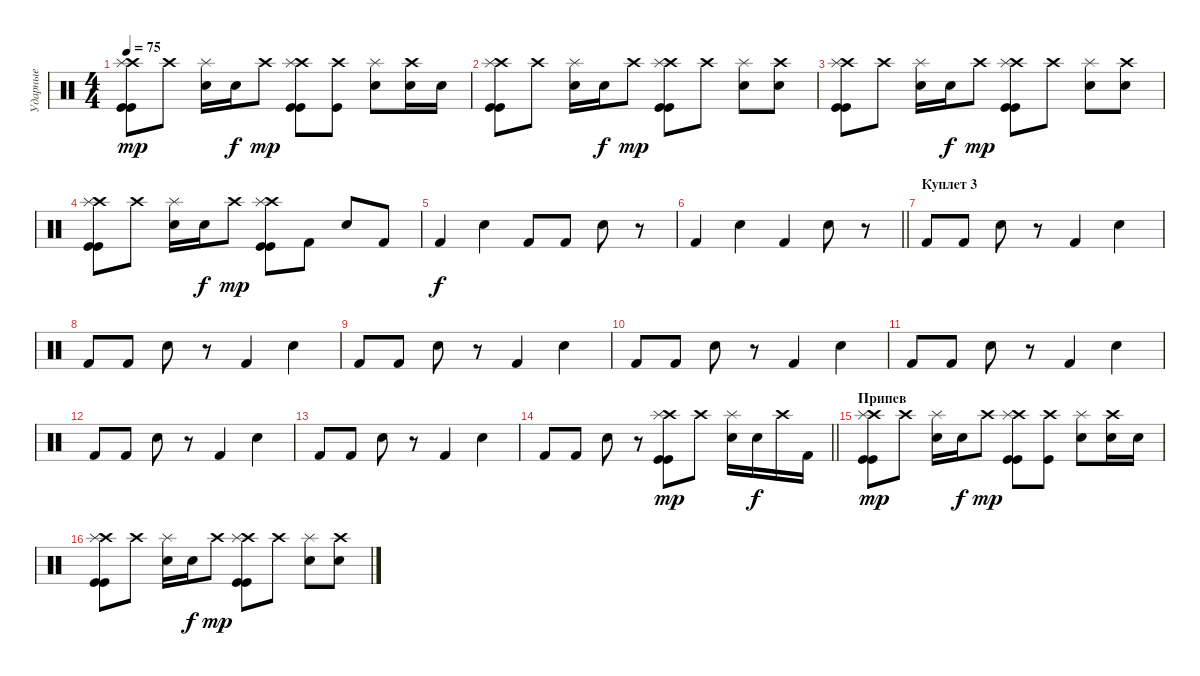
\track ("Ударные" "Ударные") {instrument percussion}
\staff {score}
\articulation defaults
\ts (4 4)
\tempo 75
\clef neutral
\ks c
("Crash high (hit)" "Splash (hit)" "Kick (hit)" "Kick (hit)").8{dy mp} "Crash high (hit)".8 ("Splash (hit)" "Electric Snare (hit)").16 "Snare (hit) 2".16{dy f} "Crash high (hit)".8{dy mp} ("Crash high (hit)" "Splash (hit)" "Kick (hit)" "Kick (hit)").8 ("Crash high (hit)" "Kick (hit)").8 ("Splash (hit)" "Electric Snare (hit)").8 ("Crash high (hit)" "Snare (hit) 2").16 "Electric Snare (hit)".16 |
("Crash high (hit)" "Splash (hit)" "Kick (hit)" "Kick (hit)").8 "Crash high (hit)".8 ("Splash (hit)" "Electric Snare (hit)").16 "Snare (hit) 2".16{dy f} "Crash high (hit)".8{dy mp} ("Crash high (hit)" "Splash (hit)" "Kick (hit)" "Kick (hit)").8 "Crash high (hit)".8 ("Splash (hit)" "Electric Snare (hit)").8 ("Crash high (hit)" "Snare (hit) 2").8 |
("Crash high (hit)" "Splash (hit)" "Kick (hit)" "Kick (hit)").8 "Crash high (hit)".8 ("Splash (hit)" "Electric Snare (hit)").16 "Snare (hit) 2".16{dy f} "Crash high (hit)".8{dy mp} ("Crash high (hit)" "Splash (hit)" "Kick (hit)" "Kick (hit)").8 "Crash high (hit)".8 ("Splash (hit)" "Electric Snare (hit)").8 ("Crash high (hit)" "Snare (hit) 2").8 |
("Crash high (hit)" "Splash (hit)" "Kick (hit)" "Kick (hit)").8 "Crash high (hit)".8 ("Splash (hit)" "Electric Snare (hit)").16 "Snare (hit) 2".16{dy f} "Crash high (hit)".8{dy mp} ("Crash high (hit)" "Splash (hit)" "Kick (hit)" "Kick (hit)").8 "Kick (hit) 2".8 "Electric Snare (hit)".8 "Kick (hit) 2".8 |
"Kick (hit) 2".4{dy f} "Electric Snare (hit)".4 "Kick (hit) 2".8 "Kick (hit) 2".8 "Electric Snare (hit)".8 r.8 |
\barLineRight lightlight "Kick (hit) 2".4 "Electric Snare (hit)".4 "Kick (hit) 2".4 "Electric Snare (hit)".8
r.8 |
\section ("" "Куплет 3")
"Kick (hit) 2".8 "Kick (hit) 2".8 "Electric Snare (hit)".8 r.8 "Kick (hit) 2".4 "Electric Snare (hit)".4 |
"Kick (hit) 2".8 "Kick (hit) 2".8 "Electric Snare (hit)".8 r.8 "Kick (hit) 2".4 "Electric Snare (hit)".4 |
"Kick (hit) 2".8 "Kick (hit) 2".8 "Electric Snare (hit)".8 r.8 "Kick (hit) 2".4 "Electric Snare (hit)".4 |
"Kick (hit) 2".8 "Kick (hit) 2".8 "Electric Snare (hit)".8 r.8 "Kick (hit) 2".4 "Electric Snare (hit)".4 |
"Kick (hit) 2".8 "Kick (hit) 2".8 "Electric Snare (hit)".8 r.8 "Kick (hit) 2".4 "Electric Snare (hit)".4 |
"Kick (hit) 2".8 "Kick (hit) 2".8 "Electric Snare (hit)".8 r.8 "Kick (hit) 2".4 "Electric Snare (hit)".4 |
"Kick (hit) 2".8 "Kick (hit) 2".8 "Electric Snare (hit)".8 r.8 "Kick (hit) 2".4 "Electric Snare (hit)".4 |
\barLineRight lightlight "Kick (hit) 2".8 "Kick (hit) 2".8 "Electric Snare (hit)".8
r.8 ("Crash high (hit)" "Splash (hit)" "Kick (hit)" "Kick (hit)").8{dy mp} "Crash high (hit)".8 ("Splash (hit)" "Electric Snare (hit)").16 "Snare (hit) 2".16{dy f} "Crash high (hit)".16 "Kick (hit) 2".16 |
\section ("" "Припев")
("Crash high (hit)" "Splash (hit)" "Kick (hit)" "Kick (hit)").8{dy mp} "Crash high (hit)".8 ("Splash (hit)" "Electric Snare (hit)").16 "Snare (hit) 2".16{dy f} "Crash high (hit)".8{dy mp} ("Crash high (hit)" "Splash (hit)" "Kick (hit)" "Kick (hit)").8 ("Crash high (hit)" "Kick (hit)").8 ("Splash (hit)" "Electric Snare (hit)").8 ("Crash high (hit)" "Snare (hit) 2").16 "Electric Snare (hit)".16 |
("Crash high (hit)" "Splash (hit)" "Kick (hit)" "Kick (hit)").8 "Crash high (hit)".8 ("Splash (hit)" "Electric Snare (hit)").16 "Snare (hit) 2".16{dy f} "Crash high (hit)".8{dy mp} ("Crash high (hit)" "Splash (hit)" "Kick (hit)" "Kick (hit)").8 "Crash high (hit)".8 ("Splash (hit)" "Electric Snare (hit)").8 ("Crash high (hit)" "Snare (hit) 2").8
